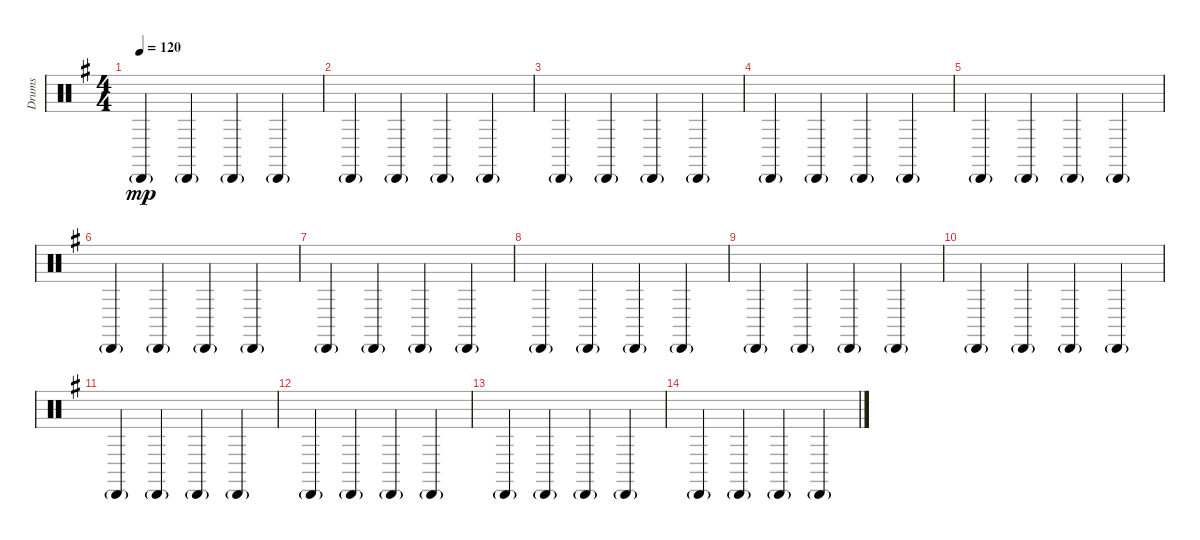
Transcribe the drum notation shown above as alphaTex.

\track ("Drums" "Drums") {instrument percussion}
\staff {score}
\articulation defaults
\ts (4 4)
\tempo 120
\clef neutral
\ks g "Cabasa (hit)"{g}.4{dy mp} "Cabasa (hit)"{g}.4 "Cabasa (hit)"{g}.4 "Cabasa (hit)"{g}.4
|
"Cabasa (hit)"{g}.4 "Cabasa (hit)"{g}.4 "Cabasa (hit)"{g}.4 "Cabasa (hit)"{g}.4 |
"Cabasa (hit)"{g}.4 "Cabasa (hit)"{g}.4 "Cabasa (hit)"{g}.4 "Cabasa (hit)"{g}.4 |
"Cabasa (hit)"{g}.4 "Cabasa (hit)"{g}.4 "Cabasa (hit)"{g}.4 "Cabasa (hit)"{g}.4 |
"Cabasa (hit)"{g}.4 "Cabasa (hit)"{g}.4 "Cabasa (hit)"{g}.4 "Cabasa (hit)"{g}.4 |
"Cabasa (hit)"{g}.4 "Cabasa (hit)"{g}.4 "Cabasa (hit)"{g}.4 "Cabasa (hit)"{g}.4 |
"Cabasa (hit)"{g}.4 "Cabasa (hit)"{g}.4 "Cabasa (hit)"{g}.4 "Cabasa (hit)"{g}.4 |
"Cabasa (hit)"{g}.4 "Cabasa (hit)"{g}.4 "Cabasa (hit)"{g}.4 "Cabasa (hit)"{g}.4 |
"Cabasa (hit)"{g}.4 "Cabasa (hit)"{g}.4 "Cabasa (hit)"{g}.4 "Cabasa (hit)"{g}.4 |
"Cabasa (hit)"{g}.4 "Cabasa (hit)"{g}.4 "Cabasa (hit)"{g}.4 "Cabasa (hit)"{g}.4 |
"Cabasa (hit)"{g}.4 "Cabasa (hit)"{g}.4 "Cabasa (hit)"{g}.4 "Cabasa (hit)"{g}.4 |
"Cabasa (hit)"{g}.4 "Cabasa (hit)"{g}.4 "Cabasa (hit)"{g}.4 "Cabasa (hit)"{g}.4 |
"Cabasa (hit)"{g}.4 "Cabasa (hit)"{g}.4 "Cabasa (hit)"{g}.4 "Cabasa (hit)"{g}.4 |
"Cabasa (hit)"{g}.4 "Cabasa (hit)"{g}.4 "Cabasa (hit)"{g}.4 "Cabasa (hit)"{g}.4
